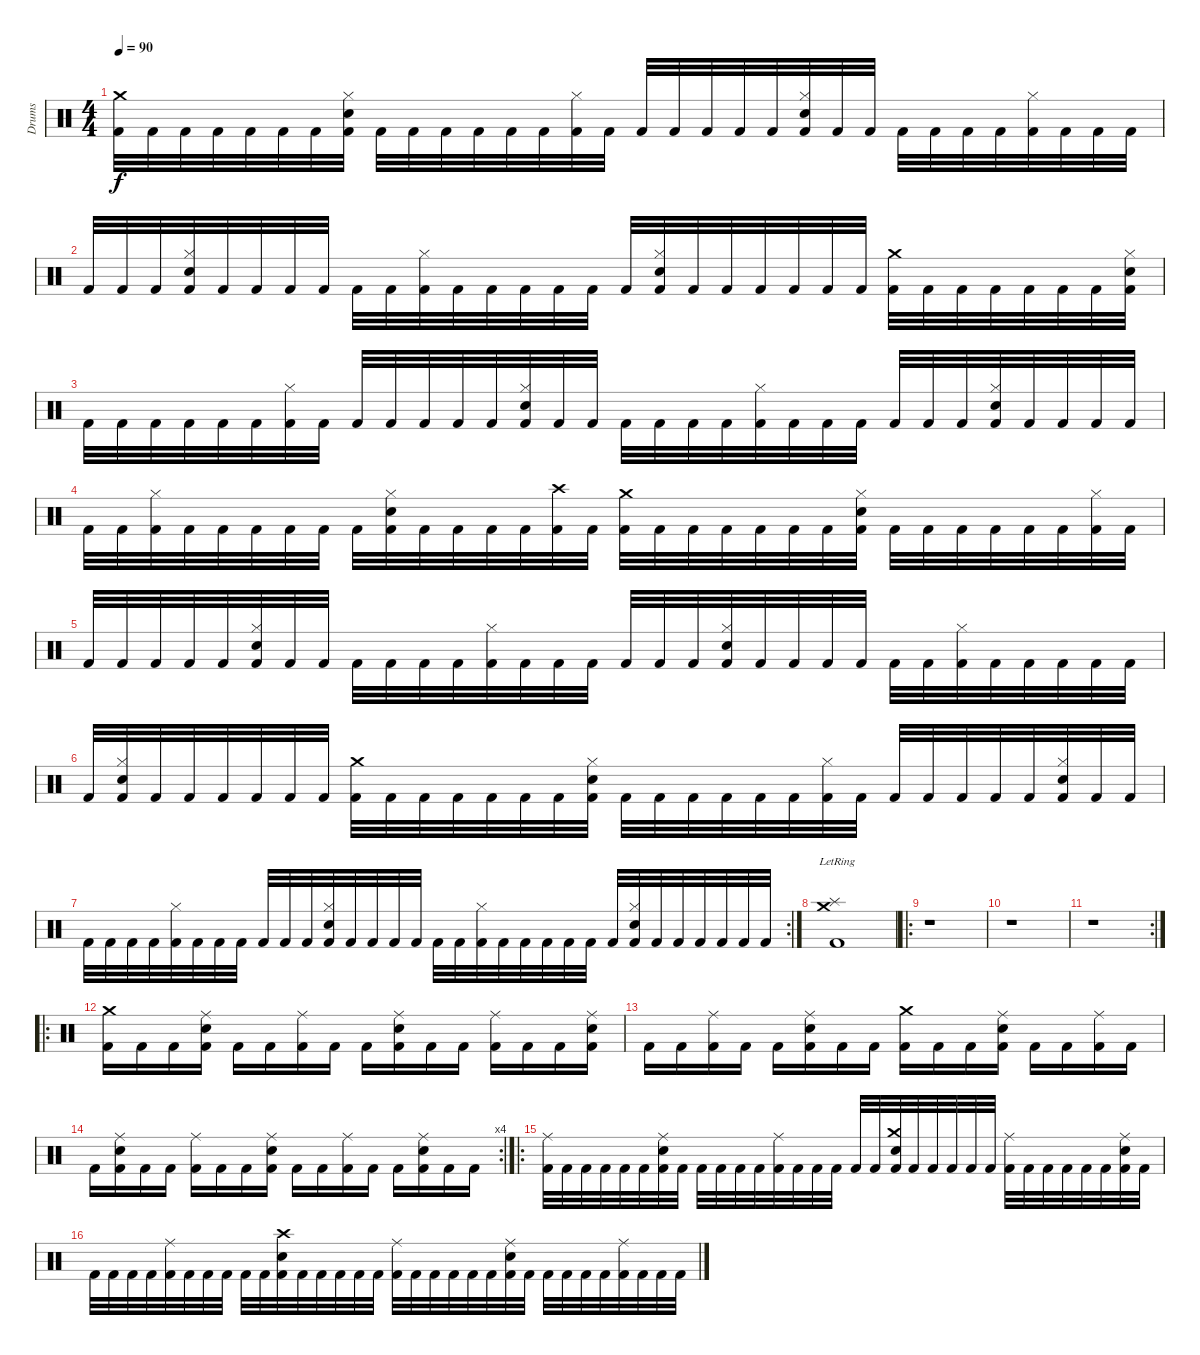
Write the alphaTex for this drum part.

\track ("Drums" "Drums") {instrument percussion}
\staff {score}
\articulation defaults
\ts (4 4)
\tempo 90
\clef neutral
\ks c
("Kick (hit) 2" "Crash medium (hit)").32{dy f} "Kick (hit) 2".32 "Kick (hit) 2".32 "Kick (hit) 2".32 "Kick (hit) 2".32 "Kick (hit) 2".32 "Kick (hit) 2".32 ("Kick (hit) 2" "Hi-Hat (closed)" "Snare (hit) 2").32 "Kick (hit) 2".32 "Kick (hit) 2".32 "Kick (hit) 2".32 "Kick (hit) 2".32 "Kick (hit) 2".32 "Kick (hit) 2".32 ("Kick (hit) 2" "Hi-Hat (closed)").32 "Kick (hit) 2".32 "Kick (hit) 2".32 "Kick (hit) 2".32 "Kick (hit) 2".32 "Kick (hit) 2".32 "Kick (hit) 2".32 ("Kick (hit) 2" "Hi-Hat (closed)" "Snare (hit) 2").32 "Kick (hit) 2".32 "Kick (hit) 2".32 "Kick (hit) 2".32 "Kick (hit) 2".32 "Kick (hit) 2".32 "Kick (hit) 2".32 ("Kick (hit) 2" "Hi-Hat (closed)").32 "Kick (hit) 2".32 "Kick (hit) 2".32 "Kick (hit) 2".32 |
"Kick (hit) 2".32 "Kick (hit) 2".32 "Kick (hit) 2".32 ("Kick (hit) 2" "Hi-Hat (closed)" "Snare (hit) 2").32 "Kick (hit) 2".32 "Kick (hit) 2".32 "Kick (hit) 2".32 "Kick (hit) 2".32 "Kick (hit) 2".32 "Kick (hit) 2".32 ("Kick (hit) 2" "Hi-Hat (closed)").32 "Kick (hit) 2".32 "Kick (hit) 2".32 "Kick (hit) 2".32 "Kick (hit) 2".32 "Kick (hit) 2".32 "Kick (hit) 2".32 ("Kick (hit) 2" "Hi-Hat (closed)" "Snare (hit) 2").32 "Kick (hit) 2".32 "Kick (hit) 2".32 "Kick (hit) 2".32 "Kick (hit) 2".32 "Kick (hit) 2".32 "Kick (hit) 2".32 ("Kick (hit) 2" "Crash medium (hit)").32 "Kick (hit) 2".32 "Kick (hit) 2".32 "Kick (hit) 2".32 "Kick (hit) 2".32 "Kick (hit) 2".32 "Kick (hit) 2".32 ("Kick (hit) 2" "Hi-Hat (closed)" "Snare (hit) 2").32 |
"Kick (hit) 2".32 "Kick (hit) 2".32 "Kick (hit) 2".32 "Kick (hit) 2".32 "Kick (hit) 2".32 "Kick (hit) 2".32 ("Kick (hit) 2" "Hi-Hat (closed)").32 "Kick (hit) 2".32 "Kick (hit) 2".32 "Kick (hit) 2".32 "Kick (hit) 2".32 "Kick (hit) 2".32 "Kick (hit) 2".32 ("Kick (hit) 2" "Hi-Hat (closed)" "Snare (hit) 2").32 "Kick (hit) 2".32 "Kick (hit) 2".32 "Kick (hit) 2".32 "Kick (hit) 2".32 "Kick (hit) 2".32 "Kick (hit) 2".32 ("Kick (hit) 2" "Hi-Hat (closed)").32 "Kick (hit) 2".32 "Kick (hit) 2".32 "Kick (hit) 2".32 "Kick (hit) 2".32 "Kick (hit) 2".32 "Kick (hit) 2".32 ("Kick (hit) 2" "Hi-Hat (closed)" "Snare (hit) 2").32 "Kick (hit) 2".32 "Kick (hit) 2".32 "Kick (hit) 2".32 "Kick (hit) 2".32 |
"Kick (hit) 2".32 "Kick (hit) 2".32 ("Kick (hit) 2" "Hi-Hat (closed)").32 "Kick (hit) 2".32 "Kick (hit) 2".32 "Kick (hit) 2".32 "Kick (hit) 2".32 "Kick (hit) 2".32 "Kick (hit) 2".32 ("Kick (hit) 2" "Hi-Hat (closed)" "Snare (hit) 2").32 "Kick (hit) 2".32 "Kick (hit) 2".32 "Kick (hit) 2".32 "Kick (hit) 2".32 ("Kick (hit) 2" "Crash high (hit)").32 "Kick (hit) 2".32 ("Kick (hit) 2" "Crash medium (hit)").32 "Kick (hit) 2".32 "Kick (hit) 2".32 "Kick (hit) 2".32 "Kick (hit) 2".32 "Kick (hit) 2".32 "Kick (hit) 2".32 ("Kick (hit) 2" "Hi-Hat (closed)" "Snare (hit) 2").32 "Kick (hit) 2".32 "Kick (hit) 2".32 "Kick (hit) 2".32 "Kick (hit) 2".32 "Kick (hit) 2".32 "Kick (hit) 2".32 ("Kick (hit) 2" "Hi-Hat (closed)").32 "Kick (hit) 2".32 |
"Kick (hit) 2".32 "Kick (hit) 2".32 "Kick (hit) 2".32 "Kick (hit) 2".32 "Kick (hit) 2".32 ("Kick (hit) 2" "Hi-Hat (closed)" "Snare (hit) 2").32 "Kick (hit) 2".32 "Kick (hit) 2".32 "Kick (hit) 2".32 "Kick (hit) 2".32 "Kick (hit) 2".32 "Kick (hit) 2".32 ("Kick (hit) 2" "Hi-Hat (closed)").32 "Kick (hit) 2".32 "Kick (hit) 2".32 "Kick (hit) 2".32 "Kick (hit) 2".32 "Kick (hit) 2".32 "Kick (hit) 2".32 ("Kick (hit) 2" "Hi-Hat (closed)" "Snare (hit) 2").32 "Kick (hit) 2".32 "Kick (hit) 2".32 "Kick (hit) 2".32 "Kick (hit) 2".32 "Kick (hit) 2".32 "Kick (hit) 2".32 ("Kick (hit) 2" "Hi-Hat (closed)").32 "Kick (hit) 2".32 "Kick (hit) 2".32 "Kick (hit) 2".32 "Kick (hit) 2".32 "Kick (hit) 2".32 |
"Kick (hit) 2".32 ("Kick (hit) 2" "Hi-Hat (closed)" "Snare (hit) 2").32 "Kick (hit) 2".32 "Kick (hit) 2".32 "Kick (hit) 2".32 "Kick (hit) 2".32 "Kick (hit) 2".32 "Kick (hit) 2".32 ("Kick (hit) 2" "Crash medium (hit)").32 "Kick (hit) 2".32 "Kick (hit) 2".32 "Kick (hit) 2".32 "Kick (hit) 2".32 "Kick (hit) 2".32 "Kick (hit) 2".32 ("Kick (hit) 2" "Hi-Hat (closed)" "Snare (hit) 2").32 "Kick (hit) 2".32 "Kick (hit) 2".32 "Kick (hit) 2".32 "Kick (hit) 2".32 "Kick (hit) 2".32 "Kick (hit) 2".32 ("Kick (hit) 2" "Hi-Hat (closed)").32 "Kick (hit) 2".32 "Kick (hit) 2".32 "Kick (hit) 2".32 "Kick (hit) 2".32 "Kick (hit) 2".32 "Kick (hit) 2".32 ("Kick (hit) 2" "Hi-Hat (closed)" "Snare (hit) 2").32 "Kick (hit) 2".32 "Kick (hit) 2".32 |
\rc 2 "Kick (hit) 2".32 "Kick (hit) 2".32 "Kick (hit) 2".32 "Kick (hit) 2".32
("Kick (hit) 2" "Hi-Hat (closed)").32 "Kick (hit) 2".32 "Kick (hit) 2".32 "Kick (hit) 2".32 "Kick (hit) 2".32 "Kick (hit) 2".32 "Kick (hit) 2".32 ("Kick (hit) 2" "Hi-Hat (closed)" "Snare (hit) 2").32 "Kick (hit) 2".32 "Kick (hit) 2".32 "Kick (hit) 2".32 "Kick (hit) 2".32 "Kick (hit) 2".32 "Kick (hit) 2".32 ("Kick (hit) 2" "Hi-Hat (closed)").32 "Kick (hit) 2".32 "Kick (hit) 2".32 "Kick (hit) 2".32 "Kick (hit) 2".32 "Kick (hit) 2".32 "Kick (hit) 2".32 ("Kick (hit) 2" "Hi-Hat (closed)" "Snare (hit) 2").32 "Kick (hit) 2".32 "Kick (hit) 2".32 "Kick (hit) 2".32 "Kick (hit) 2".32 "Kick (hit) 2".32 "Kick (hit) 2".32 |
("Kick (hit) 2"{lr} "Crash medium (hit)"{lr} "Splash (hit)"{lr}).1 |
\ro
r.1 |
r.1 |
\rc 2
r.1 |
\ro
("Kick (hit) 2" "Crash medium (hit)").16 "Kick (hit) 2".16 "Kick (hit) 2".16 ("Kick (hit) 2" "Ride (middle)" "Snare (hit) 2").16 "Kick (hit) 2".16 "Kick (hit) 2".16 ("Kick (hit) 2" "Ride (middle)").16 "Kick (hit) 2".16 "Kick (hit) 2".16 ("Kick (hit) 2" "Ride (middle)" "Snare (hit) 2").16 "Kick (hit) 2".16 "Kick (hit) 2".16 ("Kick (hit) 2" "Ride (middle)").16 "Kick (hit) 2".16 "Kick (hit) 2".16 ("Kick (hit) 2" "Ride (middle)" "Snare (hit) 2").16 |
"Kick (hit) 2".16 "Kick (hit) 2".16 ("Kick (hit) 2" "Ride (middle)").16 "Kick (hit) 2".16 "Kick (hit) 2".16 ("Kick (hit) 2" "Ride (middle)" "Snare (hit) 2").16 "Kick (hit) 2".16 "Kick (hit) 2".16 ("Kick (hit) 2" "Crash medium (hit)").16 "Kick (hit) 2".16 "Kick (hit) 2".16 ("Kick (hit) 2" "Ride (middle)" "Snare (hit) 2").16 "Kick (hit) 2".16 "Kick (hit) 2".16 ("Kick (hit) 2" "Ride (middle)").16 "Kick (hit) 2".16 |
\rc 4 "Kick (hit) 2".16
("Kick (hit) 2" "Ride (middle)" "Snare (hit) 2").16 "Kick (hit) 2".16 "Kick (hit) 2".16 ("Kick (hit) 2" "Ride (middle)").16 "Kick (hit) 2".16 "Kick (hit) 2".16 ("Kick (hit) 2" "Ride (middle)" "Snare (hit) 2").16 "Kick (hit) 2".16 "Kick (hit) 2".16 ("Kick (hit) 2" "Ride (middle)").16 "Kick (hit) 2".16 "Kick (hit) 2".16 ("Kick (hit) 2" "Ride (middle)" "Snare (hit) 2").16 "Kick (hit) 2".16 "Kick (hit) 2".16 |
\ro
("Kick (hit) 2" "Ride (middle)").32 "Kick (hit) 2".32 "Kick (hit) 2".32 "Kick (hit) 2".32 "Kick (hit) 2".32 "Kick (hit) 2".32 ("Kick (hit) 2" "Ride (middle)" "Snare (hit) 2").32 "Kick (hit) 2".32 "Kick (hit) 2".32 "Kick (hit) 2".32 "Kick (hit) 2".32 "Kick (hit) 2".32 ("Kick (hit) 2" "Ride (middle)").32 "Kick (hit) 2".32 "Kick (hit) 2".32 "Kick (hit) 2".32 "Kick (hit) 2".32 "Kick (hit) 2".32 ("Kick (hit) 2" "Snare (hit) 2" "Crash medium (hit)").32 "Kick (hit) 2".32 "Kick (hit) 2".32 "Kick (hit) 2".32 "Kick (hit) 2".32 "Kick (hit) 2".32 ("Kick (hit) 2" "Ride (middle)").32 "Kick (hit) 2".32 "Kick (hit) 2".32 "Kick (hit) 2".32 "Kick (hit) 2".32 "Kick (hit) 2".32 ("Kick (hit) 2" "Ride (middle)" "Snare (hit) 2").32 "Kick (hit) 2".32 |
"Kick (hit) 2".32 "Kick (hit) 2".32 "Kick (hit) 2".32 "Kick (hit) 2".32 ("Kick (hit) 2" "Ride (middle)").32 "Kick (hit) 2".32 "Kick (hit) 2".32 "Kick (hit) 2".32 "Kick (hit) 2".32 "Kick (hit) 2".32 ("Kick (hit) 2" "Snare (hit) 2" "Crash high (hit)").32 "Kick (hit) 2".32 "Kick (hit) 2".32 "Kick (hit) 2".32 "Kick (hit) 2".32 "Kick (hit) 2".32 ("Kick (hit) 2" "Ride (middle)").32 "Kick (hit) 2".32 "Kick (hit) 2".32 "Kick (hit) 2".32 "Kick (hit) 2".32 "Kick (hit) 2".32 ("Kick (hit) 2" "Ride (middle)" "Snare (hit) 2").32 "Kick (hit) 2".32 "Kick (hit) 2".32 "Kick (hit) 2".32 "Kick (hit) 2".32 "Kick (hit) 2".32 ("Kick (hit) 2" "Ride (middle)").32 "Kick (hit) 2".32 "Kick (hit) 2".32 "Kick (hit) 2".32
